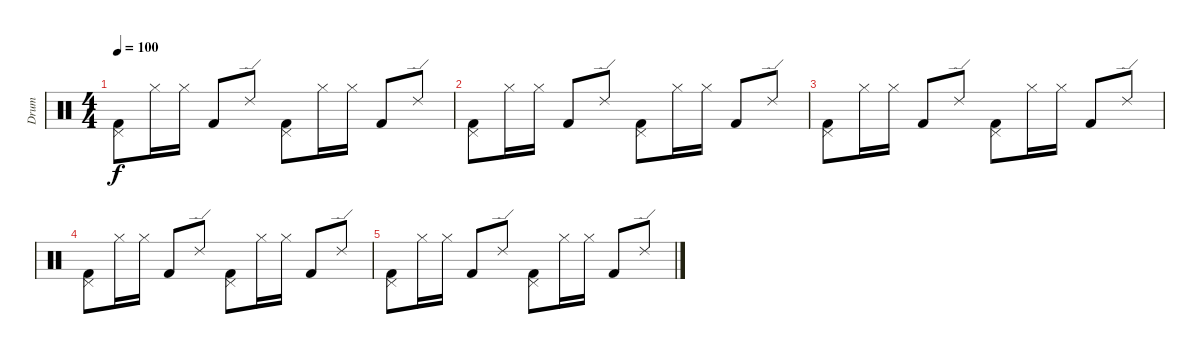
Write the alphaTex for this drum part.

\track ("Drum " "Drum ") {instrument percussion}
\staff {score}
\articulation defaults
\ts (4 4)
\tempo 100
\clef neutral
\ks c
("Pedal Hi-Hat (hit)" "Kick (hit) 2").8{dy f} "Hi-Hat (closed)".16 "Hi-Hat (closed)".16 "Kick (hit) 2".8 "Ride (edge) 2".8 ("Pedal Hi-Hat (hit)" "Kick (hit) 2").8 "Hi-Hat (closed)".16 "Hi-Hat (closed)".16 "Kick (hit) 2".8 "Ride (edge) 2".8 |
("Pedal Hi-Hat (hit)" "Kick (hit) 2").8 "Hi-Hat (closed)".16 "Hi-Hat (closed)".16 "Kick (hit) 2".8 "Ride (edge) 2".8 ("Pedal Hi-Hat (hit)" "Kick (hit) 2").8 "Hi-Hat (closed)".16 "Hi-Hat (closed)".16 "Kick (hit) 2".8 "Ride (edge) 2".8 |
("Pedal Hi-Hat (hit)" "Kick (hit) 2").8 "Hi-Hat (closed)".16 "Hi-Hat (closed)".16 "Kick (hit) 2".8 "Ride (edge) 2".8 ("Pedal Hi-Hat (hit)" "Kick (hit) 2").8 "Hi-Hat (closed)".16 "Hi-Hat (closed)".16 "Kick (hit) 2".8 "Ride (edge) 2".8 |
("Pedal Hi-Hat (hit)" "Kick (hit) 2").8 "Hi-Hat (closed)".16 "Hi-Hat (closed)".16 "Kick (hit) 2".8 "Ride (edge) 2".8 ("Pedal Hi-Hat (hit)" "Kick (hit) 2").8 "Hi-Hat (closed)".16 "Hi-Hat (closed)".16 "Kick (hit) 2".8 "Ride (edge) 2".8 |
("Pedal Hi-Hat (hit)" "Kick (hit) 2").8 "Hi-Hat (closed)".16 "Hi-Hat (closed)".16 "Kick (hit) 2".8 "Ride (edge) 2".8 ("Pedal Hi-Hat (hit)" "Kick (hit) 2").8 "Hi-Hat (closed)".16 "Hi-Hat (closed)".16 "Kick (hit) 2".8 "Ride (edge) 2".8
